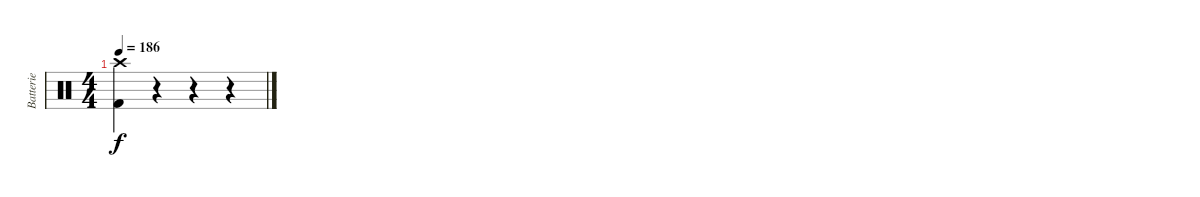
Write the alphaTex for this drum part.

\track ("Batterie" "Batterie") {instrument percussion}
\staff {score}
\articulation defaults
\ts (4 4)
\tempo 186
\clef neutral
\ks c
("Kick (hit) 2" "Crash high (hit)").4{dy f} r.4 r.4 r.4
